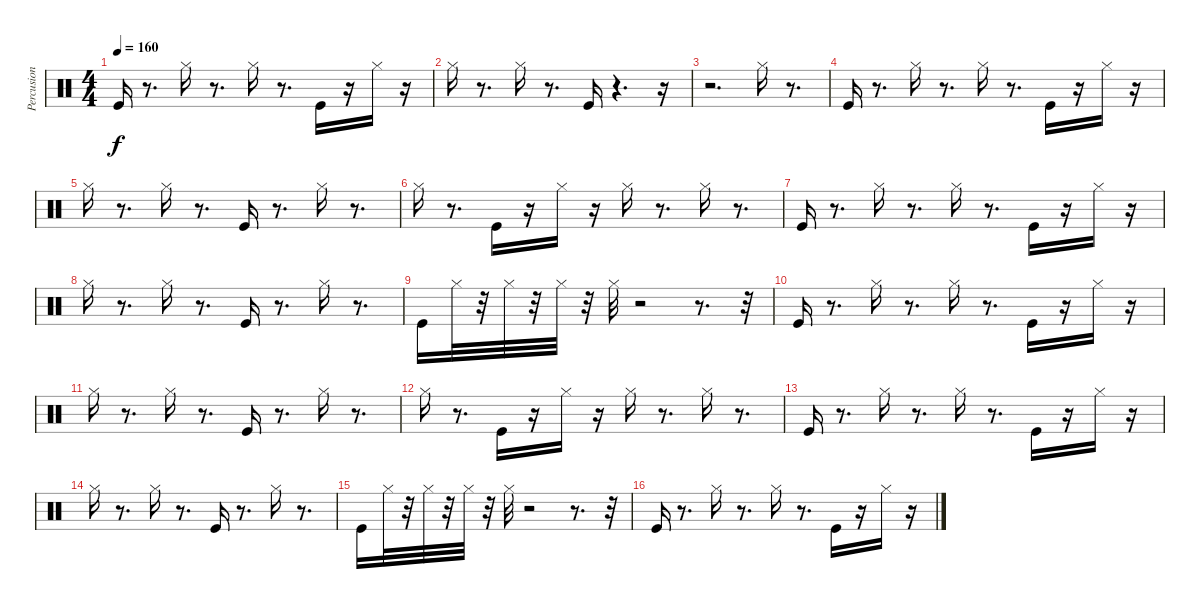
\track ("Percusion" "Percusion") {instrument percussion}
\staff {score}
\articulation defaults
\ts (4 4)
\tempo 160
\clef neutral
\ks c "Kick (hit)".16{dy f}
r.8{d} "Hi-Hat (closed)".16 r.8{d} "Hi-Hat (closed)".16 r.8{d} "Kick (hit)".16 r.16 "Hi-Hat (closed)".16 r.16 |
"Hi-Hat (closed)".16 r.8{d} "Hi-Hat (closed)".16 r.8{d} "Kick (hit)".16 r.4{d} r.16 |
r.2{d} "Hi-Hat (closed)".16 r.8{d} |
"Kick (hit)".16 r.8{d} "Hi-Hat (closed)".16 r.8{d} "Hi-Hat (closed)".16 r.8{d} "Kick (hit)".16 r.16 "Hi-Hat (closed)".16 r.16 |
"Hi-Hat (closed)".16 r.8{d} "Hi-Hat (closed)".16 r.8{d} "Kick (hit)".16 r.8{d} "Hi-Hat (closed)".16 r.8{d} |
"Hi-Hat (closed)".16 r.8{d} "Kick (hit)".16 r.16 "Hi-Hat (closed)".16 r.16 "Hi-Hat (closed)".16 r.8{d} "Hi-Hat (closed)".16 r.8{d} |
"Kick (hit)".16 r.8{d} "Hi-Hat (closed)".16 r.8{d} "Hi-Hat (closed)".16 r.8{d} "Kick (hit)".16 r.16 "Hi-Hat (closed)".16 r.16 |
"Hi-Hat (closed)".16 r.8{d} "Hi-Hat (closed)".16 r.8{d} "Kick (hit)".16 r.8{d} "Hi-Hat (closed)".16 r.8{d} |
"Kick (hit)".16 "Hi-Hat (closed)".32 r.32 "Hi-Hat (closed)".32 r.32 "Hi-Hat (closed)".32 r.32 "Hi-Hat (closed)".32 r.2 r.8{d} r.32 |
"Kick (hit)".16 r.8{d} "Hi-Hat (closed)".16 r.8{d} "Hi-Hat (closed)".16 r.8{d} "Kick (hit)".16 r.16 "Hi-Hat (closed)".16 r.16 |
"Hi-Hat (closed)".16 r.8{d} "Hi-Hat (closed)".16 r.8{d} "Kick (hit)".16 r.8{d} "Hi-Hat (closed)".16 r.8{d} |
"Hi-Hat (closed)".16 r.8{d} "Kick (hit)".16 r.16 "Hi-Hat (closed)".16 r.16 "Hi-Hat (closed)".16 r.8{d} "Hi-Hat (closed)".16 r.8{d} |
"Kick (hit)".16 r.8{d} "Hi-Hat (closed)".16 r.8{d} "Hi-Hat (closed)".16 r.8{d} "Kick (hit)".16 r.16 "Hi-Hat (closed)".16 r.16 |
"Hi-Hat (closed)".16 r.8{d} "Hi-Hat (closed)".16 r.8{d} "Kick (hit)".16 r.8{d} "Hi-Hat (closed)".16 r.8{d} |
"Kick (hit)".16 "Hi-Hat (closed)".32 r.32 "Hi-Hat (closed)".32 r.32 "Hi-Hat (closed)".32 r.32 "Hi-Hat (closed)".32 r.2 r.8{d} r.32 |
"Kick (hit)".16 r.8{d} "Hi-Hat (closed)".16 r.8{d} "Hi-Hat (closed)".16 r.8{d} "Kick (hit)".16 r.16 "Hi-Hat (closed)".16 r.16
